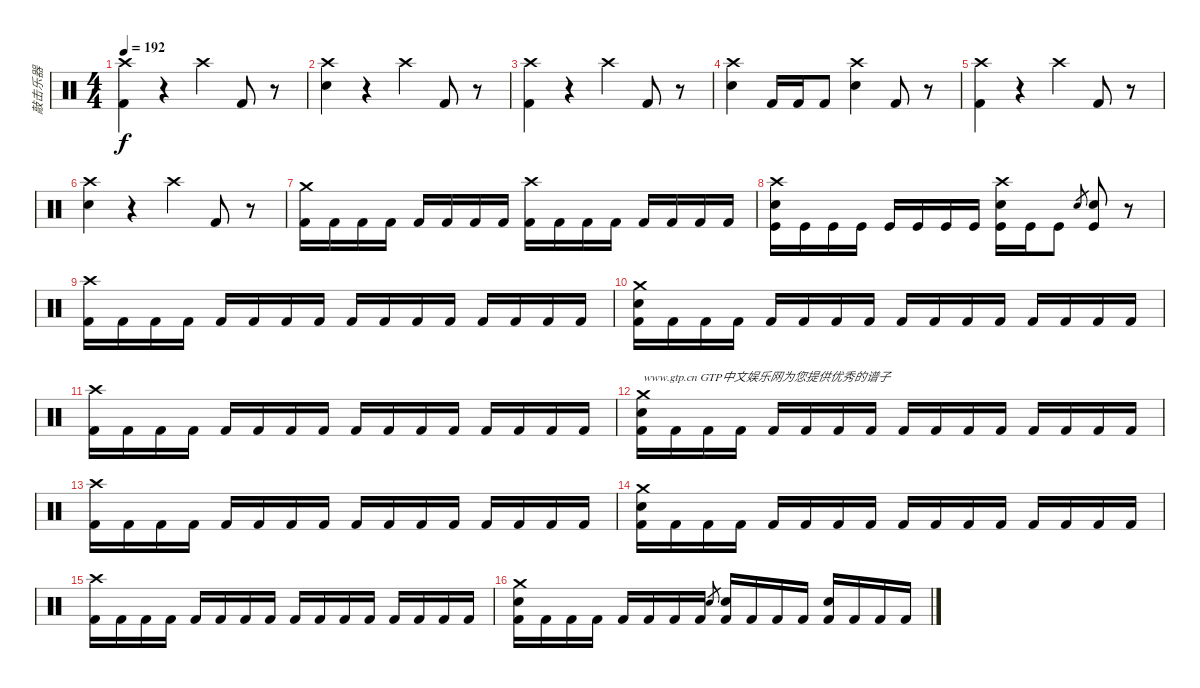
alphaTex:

\track ("敲击乐器" "敲击乐器") {instrument percussion}
\staff {score}
\articulation defaults
\ts (4 4)
\tempo 192
\clef neutral
\ks c
("Crash high (hit)" "Kick (hit) 2").4{dy f} r.4 "Crash high (hit)".4 "Kick (hit) 2".8 r.8 |
("Crash high (hit)" "Electric Snare (hit)").4 r.4 "Crash high (hit)".4 "Kick (hit) 2".8 r.8 |
("Crash high (hit)" "Kick (hit) 2").4 r.4 "Crash high (hit)".4 "Kick (hit) 2".8 r.8 |
("Crash high (hit)" "Electric Snare (hit)").4 "Kick (hit) 2".16 "Kick (hit) 2".16 "Kick (hit) 2".8 ("Crash high (hit)" "Electric Snare (hit)").4 "Kick (hit) 2".8 r.8 |
("Crash high (hit)" "Kick (hit) 2").4 r.4 "Crash high (hit)".4 "Kick (hit) 2".8 r.8 |
("Crash high (hit)" "Electric Snare (hit)").4 r.4 "Crash high (hit)".4 "Kick (hit) 2".8 r.8 |
("Crash medium (hit)" "Kick (hit) 2").16 "Kick (hit) 2".16 "Kick (hit) 2".16 "Kick (hit) 2".16 "Kick (hit) 2".16 "Kick (hit) 2".16 "Kick (hit) 2".16 "Kick (hit) 2".16 ("Crash high (hit)" "Kick (hit) 2").16 "Kick (hit) 2".16 "Kick (hit) 2".16 "Kick (hit) 2".16 "Kick (hit) 2".16 "Kick (hit) 2".16 "Kick (hit) 2".16 "Kick (hit) 2".16 |
("Crash high (hit)" "Electric Snare (hit)" "Kick (hit)").16 "Kick (hit)".16 "Kick (hit)".16 "Kick (hit)".16 "Kick (hit)".16 "Kick (hit)".16 "Kick (hit)".16 "Kick (hit)".16 ("Crash high (hit)" "Electric Snare (hit)" "Kick (hit)").16 "Kick (hit)".16 "Kick (hit)".8 "Electric Snare (hit)".8{gr} ("Electric Snare (hit)" "Kick (hit)").8 r.8 |
("Crash high (hit)" "Kick (hit) 2").16 "Kick (hit) 2".16 "Kick (hit) 2".16 "Kick (hit) 2".16 "Kick (hit) 2".16 "Kick (hit) 2".16 "Kick (hit) 2".16 "Kick (hit) 2".16 "Kick (hit) 2".16 "Kick (hit) 2".16 "Kick (hit) 2".16 "Kick (hit) 2".16 "Kick (hit) 2".16 "Kick (hit) 2".16 "Kick (hit) 2".16 "Kick (hit) 2".16 |
("Crash medium (hit)" "Electric Snare (hit)" "Kick (hit) 2").16 "Kick (hit) 2".16 "Kick (hit) 2".16 "Kick (hit) 2".16 "Kick (hit) 2".16 "Kick (hit) 2".16 "Kick (hit) 2".16 "Kick (hit) 2".16 "Kick (hit) 2".16 "Kick (hit) 2".16 "Kick (hit) 2".16 "Kick (hit) 2".16 "Kick (hit) 2".16 "Kick (hit) 2".16 "Kick (hit) 2".16 "Kick (hit) 2".16 |
("Crash high (hit)" "Kick (hit) 2").16 "Kick (hit) 2".16 "Kick (hit) 2".16 "Kick (hit) 2".16 "Kick (hit) 2".16 "Kick (hit) 2".16 "Kick (hit) 2".16 "Kick (hit) 2".16 "Kick (hit) 2".16 "Kick (hit) 2".16 "Kick (hit) 2".16 "Kick (hit) 2".16 "Kick (hit) 2".16 "Kick (hit) 2".16 "Kick (hit) 2".16 "Kick (hit) 2".16 |
("Crash medium (hit)" "Electric Snare (hit)" "Kick (hit) 2").16{txt "www.gtp.cn GTP中文娱乐网为您提供优秀的谱子"} "Kick (hit) 2".16 "Kick (hit) 2".16 "Kick (hit) 2".16 "Kick (hit) 2".16 "Kick (hit) 2".16 "Kick (hit) 2".16 "Kick (hit) 2".16 "Kick (hit) 2".16 "Kick (hit) 2".16 "Kick (hit) 2".16 "Kick (hit) 2".16 "Kick (hit) 2".16 "Kick (hit) 2".16 "Kick (hit) 2".16 "Kick (hit) 2".16 |
("Crash high (hit)" "Kick (hit) 2").16 "Kick (hit) 2".16 "Kick (hit) 2".16 "Kick (hit) 2".16 "Kick (hit) 2".16 "Kick (hit) 2".16 "Kick (hit) 2".16 "Kick (hit) 2".16 "Kick (hit) 2".16 "Kick (hit) 2".16 "Kick (hit) 2".16 "Kick (hit) 2".16 "Kick (hit) 2".16 "Kick (hit) 2".16 "Kick (hit) 2".16 "Kick (hit) 2".16 |
("Crash medium (hit)" "Electric Snare (hit)" "Kick (hit) 2").16 "Kick (hit) 2".16 "Kick (hit) 2".16 "Kick (hit) 2".16 "Kick (hit) 2".16 "Kick (hit) 2".16 "Kick (hit) 2".16 "Kick (hit) 2".16 "Kick (hit) 2".16 "Kick (hit) 2".16 "Kick (hit) 2".16 "Kick (hit) 2".16 "Kick (hit) 2".16 "Kick (hit) 2".16 "Kick (hit) 2".16 "Kick (hit) 2".16 |
("Crash high (hit)" "Kick (hit) 2").16 "Kick (hit) 2".16 "Kick (hit) 2".16 "Kick (hit) 2".16 "Kick (hit) 2".16 "Kick (hit) 2".16 "Kick (hit) 2".16 "Kick (hit) 2".16 "Kick (hit) 2".16 "Kick (hit) 2".16 "Kick (hit) 2".16 "Kick (hit) 2".16 "Kick (hit) 2".16 "Kick (hit) 2".16 "Kick (hit) 2".16 "Kick (hit) 2".16 |
("Crash medium (hit)" "Electric Snare (hit)" "Kick (hit) 2").16 "Kick (hit) 2".16 "Kick (hit) 2".16 "Kick (hit) 2".16 "Kick (hit) 2".16 "Kick (hit) 2".16 "Kick (hit) 2".16 "Kick (hit) 2".16 "Electric Snare (hit)".8{gr} ("Electric Snare (hit)" "Kick (hit) 2").16 "Kick (hit) 2".16 "Kick (hit) 2".16 "Kick (hit) 2".16 ("Electric Snare (hit)" "Kick (hit) 2").16 "Kick (hit) 2".16 "Kick (hit) 2".16 "Kick (hit) 2".16
